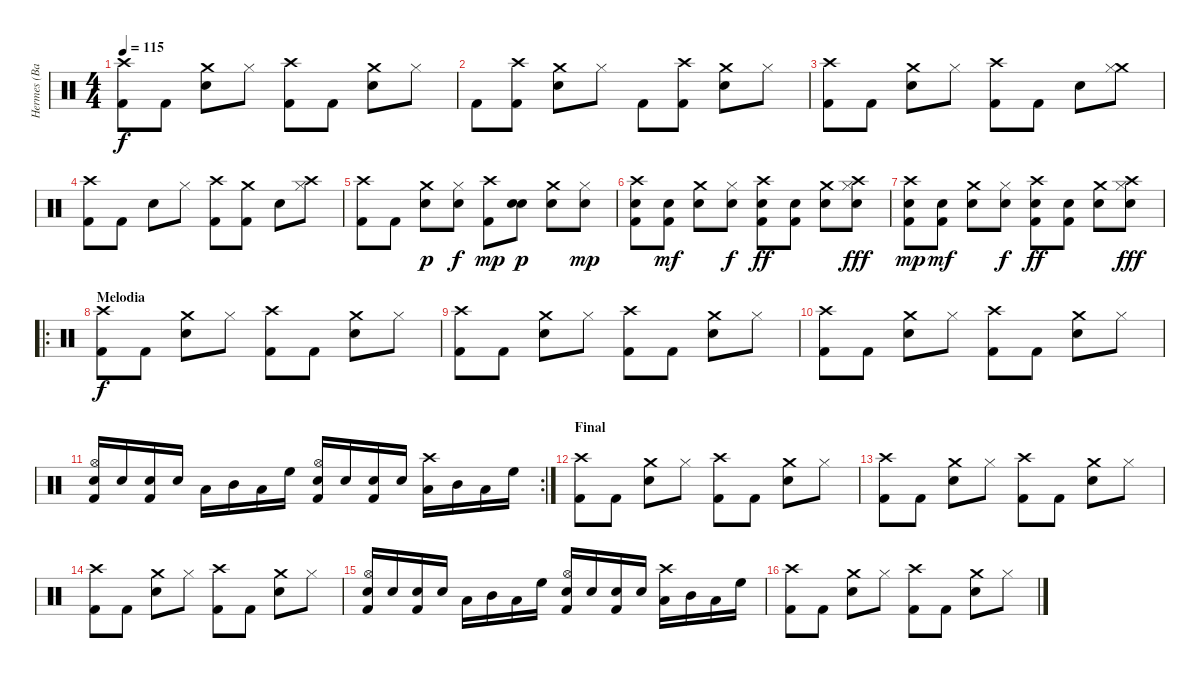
\track ("Hermes (Bateria)" "Hermes (Ba") {instrument percussion}
\staff {score}
\articulation defaults
\ts (4 4)
\tempo 115
\clef neutral
\ks c
("Crash high (hit)" "Kick (hit) 2").8{dy f} "Kick (hit) 2".8 ("Crash medium (hit)" "Snare (hit) 2").8 "Hi-Hat (closed)".8 ("Crash high (hit)" "Kick (hit) 2").8 "Kick (hit) 2".8 ("Crash medium (hit)" "Snare (hit) 2").8 "Hi-Hat (closed)".8 |
"Kick (hit) 2".8 ("Crash high (hit)" "Kick (hit) 2").8 ("Crash medium (hit)" "Snare (hit) 2").8 "Hi-Hat (closed)".8 "Kick (hit) 2".8 ("Crash high (hit)" "Kick (hit) 2").8 ("Crash medium (hit)" "Snare (hit) 2").8 "Hi-Hat (closed)".8 |
("Crash high (hit)" "Kick (hit) 2").8 "Kick (hit) 2".8 ("Crash medium (hit)" "Snare (hit) 2").8 "Hi-Hat (closed)".8 ("Crash high (hit)" "Kick (hit) 2").8 "Kick (hit) 2".8 "Snare (hit) 2".8 ("Crash medium (hit)" "Hi-Hat (closed)").8 |
("Crash high (hit)" "Kick (hit) 2").8 "Kick (hit) 2".8 "Snare (hit) 2".8 "Hi-Hat (closed)".8 ("Crash high (hit)" "Kick (hit) 2").8 ("Crash medium (hit)" "Kick (hit) 2").8 "Snare (hit) 2".8 ("Crash high (hit)" "Hi-Hat (closed)").8 |
("Crash high (hit)" "Kick (hit) 2").8 "Kick (hit) 2".8 ("Crash medium (hit)" "Snare (hit) 2").8{dy p} ("Hi-Hat (closed)" "Snare (hit) 2").8{dy f} ("Crash high (hit)" "Kick (hit) 2").8{dy mp} ("Snare (hit) 2" "Snare (hit) 2").8{dy p} ("Crash medium (hit)" "Snare (hit) 2").8 ("Hi-Hat (closed)" "Snare (hit) 2").8{dy mp} |
("Crash high (hit)" "Snare (hit) 2" "Kick (hit) 2").8 ("Snare (hit) 2" "Kick (hit) 2").8{dy mf} ("Crash medium (hit)" "Snare (hit) 2").8 ("Hi-Hat (closed)" "Snare (hit) 2").8{dy f} ("Crash high (hit)" "Snare (hit) 2" "Kick (hit) 2").8{dy ff} ("Snare (hit) 2" "Kick (hit) 2").8 ("Crash medium (hit)" "Snare (hit) 2").8 ("Crash high (hit)" "Hi-Hat (closed)" "Snare (hit) 2").8{dy fff} |
("Crash high (hit)" "Snare (hit) 2" "Kick (hit) 2").8{dy mp} ("Snare (hit) 2" "Kick (hit) 2").8{dy mf} ("Crash medium (hit)" "Snare (hit) 2").8 ("Hi-Hat (closed)" "Snare (hit) 2").8{dy f} ("Crash high (hit)" "Snare (hit) 2" "Kick (hit) 2").8{dy ff} ("Snare (hit) 2" "Kick (hit) 2").8 ("Crash medium (hit)" "Snare (hit) 2").8 ("Crash high (hit)" "Hi-Hat (closed)" "Snare (hit) 2").8{dy fff} |
\ro
\section ("" "Melodia")
("Crash high (hit)" "Kick (hit) 2").8{dy f} "Kick (hit) 2".8 ("Crash medium (hit)" "Snare (hit) 2").8 "Hi-Hat (closed)".8 ("Crash high (hit)" "Kick (hit) 2").8 "Kick (hit) 2".8 ("Crash medium (hit)" "Snare (hit) 2").8 "Hi-Hat (closed)".8 |
("Crash high (hit)" "Kick (hit) 2").8 "Kick (hit) 2".8 ("Crash medium (hit)" "Snare (hit) 2").8 "Hi-Hat (closed)".8 ("Crash high (hit)" "Kick (hit) 2").8 "Kick (hit) 2".8 ("Crash medium (hit)" "Snare (hit) 2").8 "Hi-Hat (closed)".8 |
("Crash high (hit)" "Kick (hit) 2").8 "Kick (hit) 2".8 ("Crash medium (hit)" "Snare (hit) 2").8 "Hi-Hat (closed)".8 ("Crash high (hit)" "Kick (hit) 2").8 "Kick (hit) 2".8 ("Crash medium (hit)" "Snare (hit) 2").8 "Hi-Hat (closed)".8 |
\rc 2
("Hi-Hat (open)" "Electric Snare (hit)" "Kick (hit) 2").16 "Electric Snare (hit)".16 ("Electric Snare (hit)" "Kick (hit) 2").16 "Electric Snare (hit)".16 "Low Tom (hit)".16 "Mid Tom (hit)".16 "Low Tom (hit)".16 "High Floor Tom (hit)".16 ("Hi-Hat (open)" "Electric Snare (hit)" "Kick (hit) 2").16 "Electric Snare (hit)".16 ("Electric Snare (hit)" "Kick (hit) 2").16 "Electric Snare (hit)".16 ("Crash high (hit)" "Low Tom (hit)").16 "Mid Tom (hit)".16 "Low Tom (hit)".16 "High Floor Tom (hit)".16 |
\section ("" "Final")
("Crash high (hit)" "Kick (hit) 2").8 "Kick (hit) 2".8 ("Crash medium (hit)" "Snare (hit) 2").8 "Hi-Hat (closed)".8 ("Crash high (hit)" "Kick (hit) 2").8 "Kick (hit) 2".8 ("Crash medium (hit)" "Snare (hit) 2").8 "Hi-Hat (closed)".8 |
("Crash high (hit)" "Kick (hit) 2").8 "Kick (hit) 2".8 ("Crash medium (hit)" "Snare (hit) 2").8 "Hi-Hat (closed)".8 ("Crash high (hit)" "Kick (hit) 2").8 "Kick (hit) 2".8 ("Crash medium (hit)" "Snare (hit) 2").8 "Hi-Hat (closed)".8 |
("Crash high (hit)" "Kick (hit) 2").8 "Kick (hit) 2".8 ("Crash medium (hit)" "Snare (hit) 2").8 "Hi-Hat (closed)".8 ("Crash high (hit)" "Kick (hit) 2").8 "Kick (hit) 2".8 ("Crash medium (hit)" "Snare (hit) 2").8 "Hi-Hat (closed)".8 |
("Hi-Hat (open)" "Electric Snare (hit)" "Kick (hit) 2").16 "Electric Snare (hit)".16 ("Electric Snare (hit)" "Kick (hit) 2").16 "Electric Snare (hit)".16 "Low Tom (hit)".16 "Mid Tom (hit)".16 "Low Tom (hit)".16 "High Floor Tom (hit)".16 ("Hi-Hat (open)" "Electric Snare (hit)" "Kick (hit) 2").16 "Electric Snare (hit)".16 ("Electric Snare (hit)" "Kick (hit) 2").16 "Electric Snare (hit)".16 ("Crash high (hit)" "Low Tom (hit)").16 "Mid Tom (hit)".16 "Low Tom (hit)".16 "High Floor Tom (hit)".16 |
("Crash high (hit)" "Kick (hit) 2").8 "Kick (hit) 2".8 ("Crash medium (hit)" "Snare (hit) 2").8 "Hi-Hat (closed)".8 ("Crash high (hit)" "Kick (hit) 2").8 "Kick (hit) 2".8 ("Crash medium (hit)" "Snare (hit) 2").8 "Hi-Hat (closed)".8
